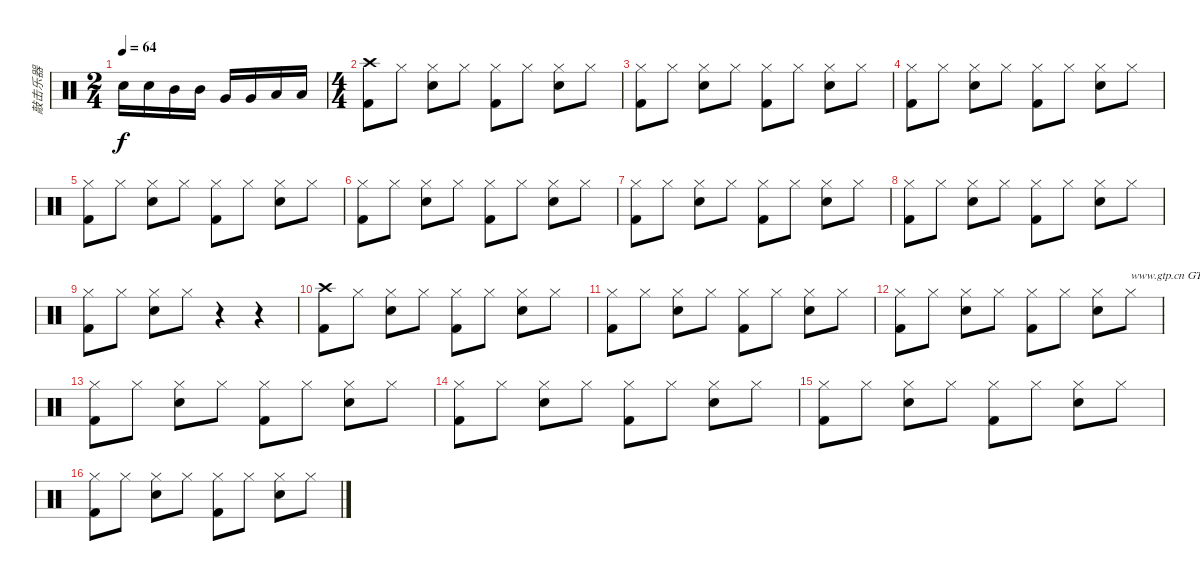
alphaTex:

\track ("敲击乐器" "敲击乐器") {instrument percussion}
\staff {score}
\articulation defaults
\ts (2 4)
\tempo 64
\clef neutral
\ks c "Snare (hit) 2".16{dy f} "Snare (hit) 2".16 "Mid Tom (hit)".16 "Mid Tom (hit)".16 "Very Low Tom (hit)".16 "Very Low Tom (hit)".16 "Low Floor Tom (hit)".16 "Low Floor Tom (hit)".16
|
\ts (4 4)
("Kick (hit) 2" "Crash high (hit)").8 "Hi-Hat (closed)".8 ("Snare (hit) 2" "Hi-Hat (closed)").8 "Hi-Hat (closed)".8 ("Kick (hit) 2" "Hi-Hat (closed)").8 "Hi-Hat (closed)".8 ("Snare (hit) 2" "Hi-Hat (closed)").8 "Hi-Hat (closed)".8 |
("Kick (hit) 2" "Hi-Hat (closed)").8 "Hi-Hat (closed)".8 ("Snare (hit) 2" "Hi-Hat (closed)").8 "Hi-Hat (closed)".8 ("Kick (hit) 2" "Hi-Hat (closed)").8 "Hi-Hat (closed)".8 ("Snare (hit) 2" "Hi-Hat (closed)").8 "Hi-Hat (closed)".8 |
("Kick (hit) 2" "Hi-Hat (closed)").8 "Hi-Hat (closed)".8 ("Snare (hit) 2" "Hi-Hat (closed)").8 "Hi-Hat (closed)".8 ("Kick (hit) 2" "Hi-Hat (closed)").8 "Hi-Hat (closed)".8 ("Snare (hit) 2" "Hi-Hat (closed)").8 "Hi-Hat (closed)".8 |
("Kick (hit) 2" "Hi-Hat (closed)").8 "Hi-Hat (closed)".8 ("Snare (hit) 2" "Hi-Hat (closed)").8 "Hi-Hat (closed)".8 ("Kick (hit) 2" "Hi-Hat (closed)").8 "Hi-Hat (closed)".8 ("Snare (hit) 2" "Hi-Hat (closed)").8 "Hi-Hat (closed)".8 |
("Kick (hit) 2" "Hi-Hat (closed)").8 "Hi-Hat (closed)".8 ("Snare (hit) 2" "Hi-Hat (closed)").8 "Hi-Hat (closed)".8 ("Kick (hit) 2" "Hi-Hat (closed)").8 "Hi-Hat (closed)".8 ("Snare (hit) 2" "Hi-Hat (closed)").8 "Hi-Hat (closed)".8 |
("Kick (hit) 2" "Hi-Hat (closed)").8 "Hi-Hat (closed)".8 ("Snare (hit) 2" "Hi-Hat (closed)").8 "Hi-Hat (closed)".8 ("Kick (hit) 2" "Hi-Hat (closed)").8 "Hi-Hat (closed)".8 ("Snare (hit) 2" "Hi-Hat (closed)").8 "Hi-Hat (closed)".8 |
("Kick (hit) 2" "Hi-Hat (closed)").8 "Hi-Hat (closed)".8 ("Snare (hit) 2" "Hi-Hat (closed)").8 "Hi-Hat (closed)".8 ("Kick (hit) 2" "Hi-Hat (closed)").8 "Hi-Hat (closed)".8 ("Snare (hit) 2" "Hi-Hat (closed)").8 "Hi-Hat (closed)".8 |
("Kick (hit) 2" "Hi-Hat (closed)").8 "Hi-Hat (closed)".8 ("Snare (hit) 2" "Hi-Hat (closed)").8 "Hi-Hat (closed)".8 r.4 r.4 |
("Kick (hit) 2" "Crash high (hit)").8 "Hi-Hat (closed)".8 ("Snare (hit) 2" "Hi-Hat (closed)").8 "Hi-Hat (closed)".8 ("Kick (hit) 2" "Hi-Hat (closed)").8 "Hi-Hat (closed)".8 ("Snare (hit) 2" "Hi-Hat (closed)").8 "Hi-Hat (closed)".8 |
("Kick (hit) 2" "Hi-Hat (closed)").8 "Hi-Hat (closed)".8 ("Snare (hit) 2" "Hi-Hat (closed)").8 "Hi-Hat (closed)".8 ("Kick (hit) 2" "Hi-Hat (closed)").8 "Hi-Hat (closed)".8 ("Snare (hit) 2" "Hi-Hat (closed)").8 "Hi-Hat (closed)".8 |
("Kick (hit) 2" "Hi-Hat (closed)").8 "Hi-Hat (closed)".8 ("Snare (hit) 2" "Hi-Hat (closed)").8 "Hi-Hat (closed)".8 ("Kick (hit) 2" "Hi-Hat (closed)").8 "Hi-Hat (closed)".8 ("Snare (hit) 2" "Hi-Hat (closed)").8 "Hi-Hat (closed)".8{txt "www.gtp.cn GTP中文网为您提供优秀的谱子"} |
("Kick (hit) 2" "Hi-Hat (closed)").8 "Hi-Hat (closed)".8 ("Snare (hit) 2" "Hi-Hat (closed)").8 "Hi-Hat (closed)".8 ("Kick (hit) 2" "Hi-Hat (closed)").8 "Hi-Hat (closed)".8 ("Snare (hit) 2" "Hi-Hat (closed)").8 "Hi-Hat (closed)".8 |
("Kick (hit) 2" "Hi-Hat (closed)").8 "Hi-Hat (closed)".8 ("Snare (hit) 2" "Hi-Hat (closed)").8 "Hi-Hat (closed)".8 ("Kick (hit) 2" "Hi-Hat (closed)").8 "Hi-Hat (closed)".8 ("Snare (hit) 2" "Hi-Hat (closed)").8 "Hi-Hat (closed)".8 |
("Kick (hit) 2" "Hi-Hat (closed)").8 "Hi-Hat (closed)".8 ("Snare (hit) 2" "Hi-Hat (closed)").8 "Hi-Hat (closed)".8 ("Kick (hit) 2" "Hi-Hat (closed)").8 "Hi-Hat (closed)".8 ("Snare (hit) 2" "Hi-Hat (closed)").8 "Hi-Hat (closed)".8 |
("Kick (hit) 2" "Hi-Hat (closed)").8 "Hi-Hat (closed)".8 ("Snare (hit) 2" "Hi-Hat (closed)").8 "Hi-Hat (closed)".8 ("Kick (hit) 2" "Hi-Hat (closed)").8 "Hi-Hat (closed)".8 ("Snare (hit) 2" "Hi-Hat (closed)").8 "Hi-Hat (closed)".8
